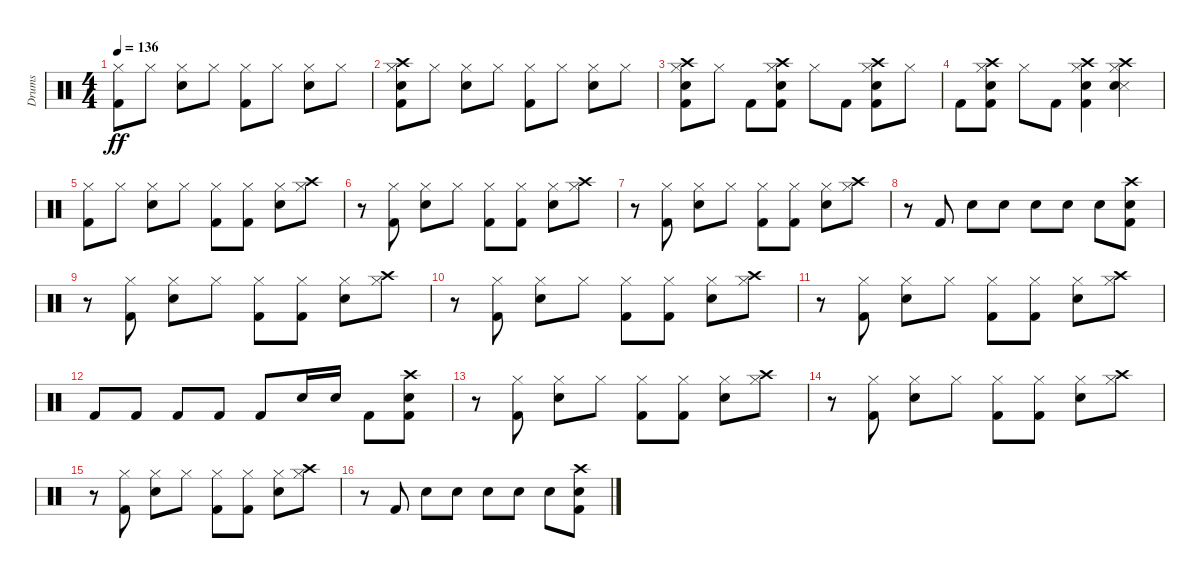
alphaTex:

\track ("Drums" "Drums") {instrument percussion}
\staff {score}
\articulation defaults
\ts (4 4)
\tempo 136
\clef neutral
\ks c
("Kick (hit) 2" "Hi-Hat (closed)").8{dy ff} "Hi-Hat (closed)".8 ("Snare (hit) 2" "Hi-Hat (closed)").8 "Hi-Hat (closed)".8 ("Kick (hit) 2" "Hi-Hat (closed)").8 "Hi-Hat (closed)".8 ("Snare (hit) 2" "Hi-Hat (closed)").8 "Hi-Hat (closed)".8 |
("Kick (hit) 2" "Snare (hit) 2" "Hi-Hat (closed)" "Crash high (hit)").8 "Hi-Hat (closed)".8 ("Snare (hit) 2" "Hi-Hat (closed)").8 "Hi-Hat (closed)".8 ("Kick (hit) 2" "Hi-Hat (closed)").8 "Hi-Hat (closed)".8 ("Snare (hit) 2" "Hi-Hat (closed)").8 "Hi-Hat (closed)".8 |
("Kick (hit) 2" "Snare (hit) 2" "Hi-Hat (closed)" "Crash high (hit)").8 "Hi-Hat (closed)".8 "Kick (hit) 2".8 ("Kick (hit) 2" "Snare (hit) 2" "Hi-Hat (closed)" "Crash high (hit)").8 "Hi-Hat (closed)".8 "Kick (hit) 2".8 ("Kick (hit) 2" "Snare (hit) 2" "Hi-Hat (closed)" "Crash high (hit)").8 "Hi-Hat (closed)".8 |
"Kick (hit) 2".8 ("Kick (hit) 2" "Snare (hit) 2" "Hi-Hat (closed)" "Crash high (hit)").8 "Hi-Hat (closed)".8 "Kick (hit) 2".8 ("Kick (hit) 2" "Snare (hit) 2" "Hi-Hat (closed)" "Crash high (hit)").4 ("Snare (side stick) 3" "Snare (hit) 2" "Hi-Hat (closed)" "Crash high (hit)").4 |
("Kick (hit) 2" "Hi-Hat (closed)").8 "Hi-Hat (closed)".8 ("Snare (hit) 2" "Hi-Hat (closed)").8 "Hi-Hat (closed)".8 ("Kick (hit) 2" "Hi-Hat (closed)").8 ("Kick (hit) 2" "Hi-Hat (closed)").8 ("Snare (hit) 2" "Hi-Hat (closed)").8 ("Hi-Hat (closed)" "Crash high (hit)").8 |
r.8 ("Kick (hit) 2" "Hi-Hat (closed)").8 ("Snare (hit) 2" "Hi-Hat (closed)").8 "Hi-Hat (closed)".8 ("Kick (hit) 2" "Hi-Hat (closed)").8 ("Kick (hit) 2" "Hi-Hat (closed)").8 ("Snare (hit) 2" "Hi-Hat (closed)").8 ("Hi-Hat (closed)" "Crash high (hit)").8 |
r.8 ("Kick (hit) 2" "Hi-Hat (closed)").8 ("Snare (hit) 2" "Hi-Hat (closed)").8 "Hi-Hat (closed)".8 ("Kick (hit) 2" "Hi-Hat (closed)").8 ("Kick (hit) 2" "Hi-Hat (closed)").8 ("Snare (hit) 2" "Hi-Hat (closed)").8 ("Hi-Hat (closed)" "Crash high (hit)").8 |
r.8 "Kick (hit) 2".8 "Snare (hit) 2".8 "Snare (hit) 2".8 "Snare (hit) 2".8 "Snare (hit) 2".8 "Snare (hit) 2".8 ("Kick (hit) 2" "Snare (hit) 2" "Crash high (hit)").8 |
r.8 ("Kick (hit) 2" "Hi-Hat (closed)").8 ("Snare (hit) 2" "Hi-Hat (closed)").8 "Hi-Hat (closed)".8 ("Kick (hit) 2" "Hi-Hat (closed)").8 ("Kick (hit) 2" "Hi-Hat (closed)").8 ("Snare (hit) 2" "Hi-Hat (closed)").8 ("Hi-Hat (closed)" "Crash high (hit)").8 |
r.8 ("Kick (hit) 2" "Hi-Hat (closed)").8 ("Snare (hit) 2" "Hi-Hat (closed)").8 "Hi-Hat (closed)".8 ("Kick (hit) 2" "Hi-Hat (closed)").8 ("Kick (hit) 2" "Hi-Hat (closed)").8 ("Snare (hit) 2" "Hi-Hat (closed)").8 ("Hi-Hat (closed)" "Crash high (hit)").8 |
r.8 ("Kick (hit) 2" "Hi-Hat (closed)").8 ("Snare (hit) 2" "Hi-Hat (closed)").8 "Hi-Hat (closed)".8 ("Kick (hit) 2" "Hi-Hat (closed)").8 ("Kick (hit) 2" "Hi-Hat (closed)").8 ("Snare (hit) 2" "Hi-Hat (closed)").8 ("Hi-Hat (closed)" "Crash high (hit)").8 |
"Kick (hit) 2".8 "Kick (hit) 2".8 "Kick (hit) 2".8 "Kick (hit) 2".8 "Kick (hit) 2".8 "Snare (hit) 2".16 "Snare (hit) 2".16 "Kick (hit) 2".8 ("Kick (hit) 2" "Snare (hit) 2" "Crash high (hit)").8 |
r.8 ("Kick (hit) 2" "Hi-Hat (closed)").8 ("Snare (hit) 2" "Hi-Hat (closed)").8 "Hi-Hat (closed)".8 ("Kick (hit) 2" "Hi-Hat (closed)").8 ("Kick (hit) 2" "Hi-Hat (closed)").8 ("Snare (hit) 2" "Hi-Hat (closed)").8 ("Hi-Hat (closed)" "Crash high (hit)").8 |
r.8 ("Kick (hit) 2" "Hi-Hat (closed)").8 ("Snare (hit) 2" "Hi-Hat (closed)").8 "Hi-Hat (closed)".8 ("Kick (hit) 2" "Hi-Hat (closed)").8 ("Kick (hit) 2" "Hi-Hat (closed)").8 ("Snare (hit) 2" "Hi-Hat (closed)").8 ("Hi-Hat (closed)" "Crash high (hit)").8 |
r.8 ("Kick (hit) 2" "Hi-Hat (closed)").8 ("Snare (hit) 2" "Hi-Hat (closed)").8 "Hi-Hat (closed)".8 ("Kick (hit) 2" "Hi-Hat (closed)").8 ("Kick (hit) 2" "Hi-Hat (closed)").8 ("Snare (hit) 2" "Hi-Hat (closed)").8 ("Hi-Hat (closed)" "Crash high (hit)").8 |
r.8 "Kick (hit) 2".8 "Snare (hit) 2".8 "Snare (hit) 2".8 "Snare (hit) 2".8 "Snare (hit) 2".8 "Snare (hit) 2".8 ("Kick (hit) 2" "Snare (hit) 2" "Crash high (hit)").8
